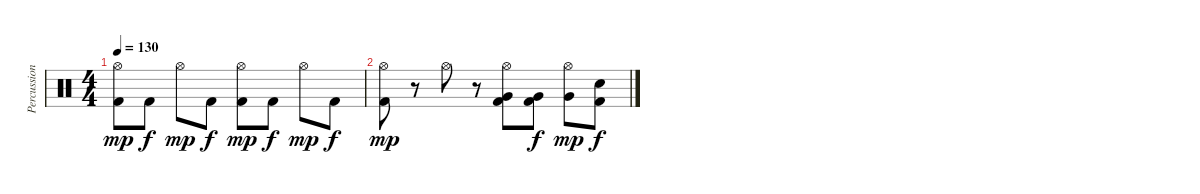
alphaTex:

\track ("Percussions" "Percussion") {instrument percussion}
\staff {score}
\articulation defaults
\ts (4 4)
\tempo 130
\clef neutral
\ks c
("Hi-Hat (open)" "Kick (hit) 2").8{dy mp} "Kick (hit) 2".8{dy f} "Hi-Hat (open)".8{dy mp} "Kick (hit) 2".8{dy f} ("Hi-Hat (open)" "Kick (hit) 2").8{dy mp} "Kick (hit) 2".8{dy f} "Hi-Hat (open)".8{dy mp} "Kick (hit) 2".8{dy f} |
("Hi-Hat (open)" "Kick (hit) 2").8{dy mp} r.8 "Hi-Hat (open)".8 r.8 ("Hi-Hat (open)" "Very Low Tom (hit)" "Kick (hit) 2").8 ("Very Low Tom (hit)" "Kick (hit) 2").8{dy f} ("Hi-Hat (open)" "Very Low Tom (hit)").8{dy mp} ("Snare (hit) 2" "Kick (hit) 2").8{dy f}
